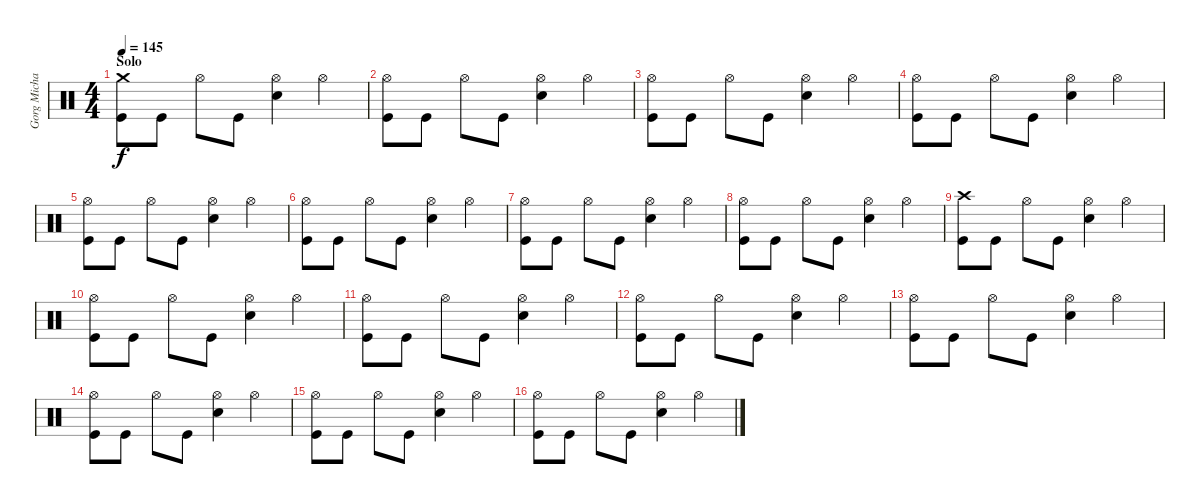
\track ("Gorg Michael" "Gorg Micha") {instrument percussion}
\staff {score}
\articulation defaults
\ts (4 4)
\section ("" "Solo")
\tempo 145
\clef neutral
\ks c
("Crash medium (hit)" "Kick (hit)").8{dy f} "Kick (hit)".8 "Hi-Hat (open)".8 "Kick (hit)".8 ("Hi-Hat (open)" "Snare (hit) 2").4 "Hi-Hat (open)".4 |
("Hi-Hat (open)" "Kick (hit)").8 "Kick (hit)".8 "Hi-Hat (open)".8 "Kick (hit)".8 ("Hi-Hat (open)" "Snare (hit) 2").4 "Hi-Hat (open)".4 |
("Hi-Hat (open)" "Kick (hit)").8 "Kick (hit)".8 "Hi-Hat (open)".8 "Kick (hit)".8 ("Hi-Hat (open)" "Snare (hit) 2").4 "Hi-Hat (open)".4 |
("Hi-Hat (open)" "Kick (hit)").8 "Kick (hit)".8 "Hi-Hat (open)".8 "Kick (hit)".8 ("Hi-Hat (open)" "Snare (hit) 2").4 "Hi-Hat (open)".4 |
("Hi-Hat (open)" "Kick (hit)").8 "Kick (hit)".8 "Hi-Hat (open)".8 "Kick (hit)".8 ("Hi-Hat (open)" "Snare (hit) 2").4 "Hi-Hat (open)".4 |
("Hi-Hat (open)" "Kick (hit)").8 "Kick (hit)".8 "Hi-Hat (open)".8 "Kick (hit)".8 ("Hi-Hat (open)" "Snare (hit) 2").4 "Hi-Hat (open)".4 |
("Hi-Hat (open)" "Kick (hit)").8 "Kick (hit)".8 "Hi-Hat (open)".8 "Kick (hit)".8 ("Hi-Hat (open)" "Snare (hit) 2").4 "Hi-Hat (open)".4 |
("Hi-Hat (open)" "Kick (hit)").8 "Kick (hit)".8 "Hi-Hat (open)".8 "Kick (hit)".8 ("Hi-Hat (open)" "Snare (hit) 2").4 "Hi-Hat (open)".4 |
("Crash high (hit)" "Kick (hit)").8 "Kick (hit)".8 "Hi-Hat (open)".8 "Kick (hit)".8 ("Hi-Hat (open)" "Snare (hit) 2").4 "Hi-Hat (open)".4 |
("Hi-Hat (open)" "Kick (hit)").8 "Kick (hit)".8 "Hi-Hat (open)".8 "Kick (hit)".8 ("Hi-Hat (open)" "Snare (hit) 2").4 "Hi-Hat (open)".4 |
("Hi-Hat (open)" "Kick (hit)").8 "Kick (hit)".8 "Hi-Hat (open)".8 "Kick (hit)".8 ("Hi-Hat (open)" "Snare (hit) 2").4 "Hi-Hat (open)".4 |
("Hi-Hat (open)" "Kick (hit)").8 "Kick (hit)".8 "Hi-Hat (open)".8 "Kick (hit)".8 ("Hi-Hat (open)" "Snare (hit) 2").4 "Hi-Hat (open)".4 |
("Hi-Hat (open)" "Kick (hit)").8 "Kick (hit)".8 "Hi-Hat (open)".8 "Kick (hit)".8 ("Hi-Hat (open)" "Snare (hit) 2").4 "Hi-Hat (open)".4 |
("Hi-Hat (open)" "Kick (hit)").8 "Kick (hit)".8 "Hi-Hat (open)".8 "Kick (hit)".8 ("Hi-Hat (open)" "Snare (hit) 2").4 "Hi-Hat (open)".4 |
("Hi-Hat (open)" "Kick (hit)").8 "Kick (hit)".8 "Hi-Hat (open)".8 "Kick (hit)".8 ("Hi-Hat (open)" "Snare (hit) 2").4 "Hi-Hat (open)".4 |
("Hi-Hat (open)" "Kick (hit)").8 "Kick (hit)".8 "Hi-Hat (open)".8 "Kick (hit)".8 ("Hi-Hat (open)" "Snare (hit) 2").4 "Hi-Hat (open)".4
